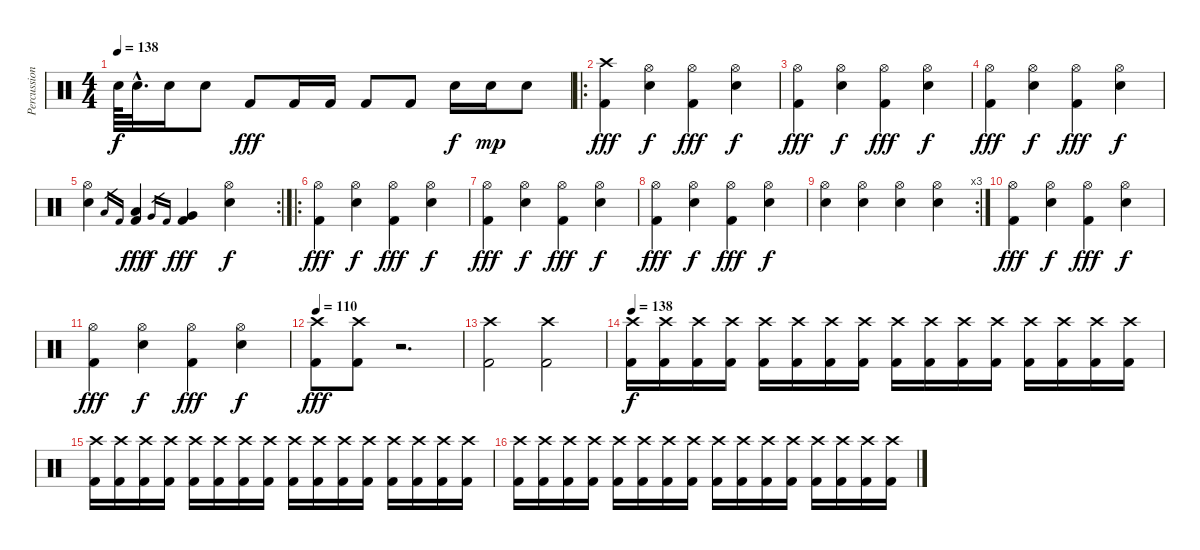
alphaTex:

\track ("Percussion" "Percussion") {instrument percussion}
\staff {score}
\articulation defaults
\ts (4 4)
\tempo 138
\clef neutral
\ks c "Snare (hit) 2".64{dy f} "Snare (hit) 2"{hac}.32{d} "Snare (hit) 2".16 "Snare (hit) 2".8 "Kick (hit) 2".8{dy fff} "Kick (hit) 2".16 "Kick (hit) 2".16 "Kick (hit) 2".8 "Kick (hit) 2".8 "Snare (hit) 2".16{dy f} "Snare (hit) 2".16{dy mp} "Snare (hit) 2".8
|
\ro
("Crash high (hit)" "Kick (hit) 2").4{dy fff} ("Hi-Hat (open)" "Snare (hit) 2").4{dy f} ("Hi-Hat (open)" "Kick (hit) 2").4{dy fff} ("Hi-Hat (open)" "Snare (hit) 2").4{dy f} |
("Hi-Hat (open)" "Kick (hit) 2").4{dy fff} ("Hi-Hat (open)" "Snare (hit) 2").4{dy f} ("Hi-Hat (open)" "Kick (hit) 2").4{dy fff} ("Hi-Hat (open)" "Snare (hit) 2").4{dy f} |
("Hi-Hat (open)" "Kick (hit) 2").4{dy fff} ("Hi-Hat (open)" "Snare (hit) 2").4{dy f} ("Hi-Hat (open)" "Kick (hit) 2").4{dy fff} ("Hi-Hat (open)" "Snare (hit) 2").4{dy f} |
\rc 2
("Hi-Hat (open)" "Snare (hit) 2").4 "Low Tom (hit)".16{gr} "Kick (hit) 2".16{gr} ("Low Tom (hit)" "Kick (hit) 2").4{dy fff} "Very Low Tom (hit)".16{gr dy f} "Kick (hit) 2".16{gr} ("Very Low Tom (hit)" "Kick (hit) 2").4{dy fff} ("Hi-Hat (open)" "Snare (hit) 2").4{dy f} |
\ro
("Hi-Hat (open)" "Kick (hit) 2").4{dy fff} ("Hi-Hat (open)" "Snare (hit) 2").4{dy f} ("Hi-Hat (open)" "Kick (hit) 2").4{dy fff} ("Hi-Hat (open)" "Snare (hit) 2").4{dy f} |
("Hi-Hat (open)" "Kick (hit) 2").4{dy fff} ("Hi-Hat (open)" "Snare (hit) 2").4{dy f} ("Hi-Hat (open)" "Kick (hit) 2").4{dy fff} ("Hi-Hat (open)" "Snare (hit) 2").4{dy f} |
("Hi-Hat (open)" "Kick (hit) 2").4{dy fff} ("Hi-Hat (open)" "Snare (hit) 2").4{dy f} ("Hi-Hat (open)" "Kick (hit) 2").4{dy fff} ("Hi-Hat (open)" "Snare (hit) 2").4{dy f} |
\rc 3
("Hi-Hat (open)" "Snare (hit) 2").4 ("Hi-Hat (open)" "Snare (hit) 2").4 ("Hi-Hat (open)" "Snare (hit) 2").4 ("Hi-Hat (open)" "Snare (hit) 2").4 |
("Hi-Hat (open)" "Kick (hit) 2").4{dy fff} ("Hi-Hat (open)" "Snare (hit) 2").4{dy f} ("Hi-Hat (open)" "Kick (hit) 2").4{dy fff} ("Hi-Hat (open)" "Snare (hit) 2").4{dy f} |
("Hi-Hat (open)" "Kick (hit) 2").4{dy fff} ("Hi-Hat (open)" "Snare (hit) 2").4{dy f} ("Hi-Hat (open)" "Kick (hit) 2").4{dy fff} ("Hi-Hat (open)" "Snare (hit) 2").4{dy f} |
\tempo 110
("Crash high (hit)" "Kick (hit) 2").8{dy fff} ("Crash high (hit)" "Kick (hit) 2").8 r.2{d} |
("Crash high (hit)" "Kick (hit) 2").2 ("Crash high (hit)" "Kick (hit) 2").2 |
\tempo 138
("Crash high (hit)" "Kick (hit) 2").16{dy f} ("Crash high (hit)" "Kick (hit) 2").16 ("Crash high (hit)" "Kick (hit) 2").16 ("Crash high (hit)" "Kick (hit) 2").16 ("Crash high (hit)" "Kick (hit) 2").16 ("Crash high (hit)" "Kick (hit) 2").16 ("Crash high (hit)" "Kick (hit) 2").16 ("Crash high (hit)" "Kick (hit) 2").16 ("Crash high (hit)" "Kick (hit) 2").16 ("Crash high (hit)" "Kick (hit) 2").16 ("Crash high (hit)" "Kick (hit) 2").16 ("Crash high (hit)" "Kick (hit) 2").16 ("Crash high (hit)" "Kick (hit) 2").16 ("Crash high (hit)" "Kick (hit) 2").16 ("Crash high (hit)" "Kick (hit) 2").16 ("Crash high (hit)" "Kick (hit) 2").16 |
("Crash high (hit)" "Kick (hit) 2").16 ("Crash high (hit)" "Kick (hit) 2").16 ("Crash high (hit)" "Kick (hit) 2").16 ("Crash high (hit)" "Kick (hit) 2").16 ("Crash high (hit)" "Kick (hit) 2").16 ("Crash high (hit)" "Kick (hit) 2").16 ("Crash high (hit)" "Kick (hit) 2").16 ("Crash high (hit)" "Kick (hit) 2").16 ("Crash high (hit)" "Kick (hit) 2").16 ("Crash high (hit)" "Kick (hit) 2").16 ("Crash high (hit)" "Kick (hit) 2").16 ("Crash high (hit)" "Kick (hit) 2").16 ("Crash high (hit)" "Kick (hit) 2").16 ("Crash high (hit)" "Kick (hit) 2").16 ("Crash high (hit)" "Kick (hit) 2").16 ("Crash high (hit)" "Kick (hit) 2").16 |
("Crash high (hit)" "Kick (hit) 2").16 ("Crash high (hit)" "Kick (hit) 2").16 ("Crash high (hit)" "Kick (hit) 2").16 ("Crash high (hit)" "Kick (hit) 2").16 ("Crash high (hit)" "Kick (hit) 2").16 ("Crash high (hit)" "Kick (hit) 2").16 ("Crash high (hit)" "Kick (hit) 2").16 ("Crash high (hit)" "Kick (hit) 2").16 ("Crash high (hit)" "Kick (hit) 2").16 ("Crash high (hit)" "Kick (hit) 2").16 ("Crash high (hit)" "Kick (hit) 2").16 ("Crash high (hit)" "Kick (hit) 2").16 ("Crash high (hit)" "Kick (hit) 2").16 ("Crash high (hit)" "Kick (hit) 2").16 ("Crash high (hit)" "Kick (hit) 2").16 ("Crash high (hit)" "Kick (hit) 2").16
